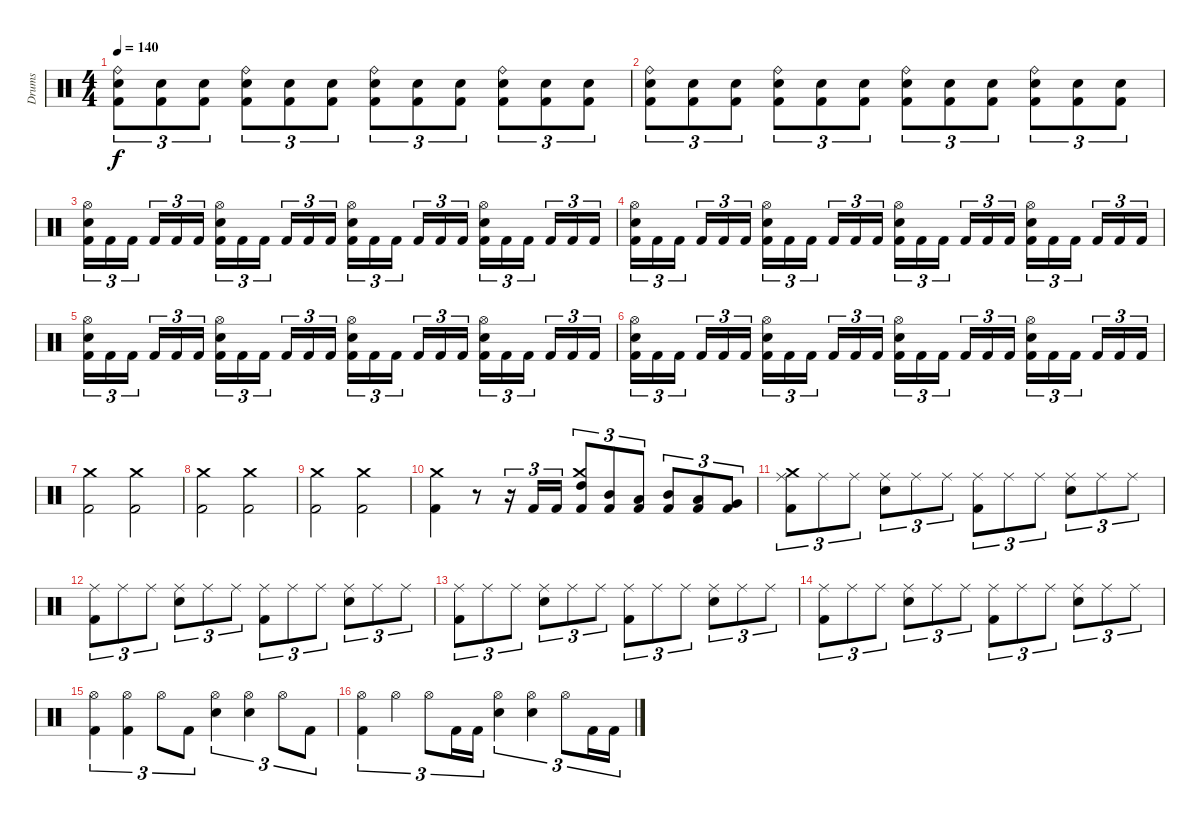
\track ("Drums" "Drums") {instrument percussion}
\staff {score}
\articulation defaults
\ts (4 4)
\tempo 140
\clef neutral
\ks c
("Kick (hit) 2" "Snare (hit) 2" "Ride (bell)").8{tu (3 2) dy f} ("Kick (hit) 2" "Snare (hit) 2").8{tu (3 2)} ("Kick (hit) 2" "Snare (hit) 2").8{tu (3 2)} ("Kick (hit) 2" "Snare (hit) 2" "Ride (bell)").8{tu (3 2)} ("Kick (hit) 2" "Snare (hit) 2").8{tu (3 2)} ("Kick (hit) 2" "Snare (hit) 2").8{tu (3 2)} ("Kick (hit) 2" "Snare (hit) 2" "Ride (bell)").8{tu (3 2)} ("Kick (hit) 2" "Snare (hit) 2").8{tu (3 2)} ("Kick (hit) 2" "Snare (hit) 2").8{tu (3 2)} ("Kick (hit) 2" "Snare (hit) 2" "Ride (bell)").8{tu (3 2)} ("Kick (hit) 2" "Snare (hit) 2").8{tu (3 2)} ("Kick (hit) 2" "Snare (hit) 2").8{tu (3 2)} |
("Kick (hit) 2" "Snare (hit) 2" "Ride (bell)").8{tu (3 2)} ("Kick (hit) 2" "Snare (hit) 2").8{tu (3 2)} ("Kick (hit) 2" "Snare (hit) 2").8{tu (3 2)} ("Kick (hit) 2" "Snare (hit) 2" "Ride (bell)").8{tu (3 2)} ("Kick (hit) 2" "Snare (hit) 2").8{tu (3 2)} ("Kick (hit) 2" "Snare (hit) 2").8{tu (3 2)} ("Kick (hit) 2" "Snare (hit) 2" "Ride (bell)").8{tu (3 2)} ("Kick (hit) 2" "Snare (hit) 2").8{tu (3 2)} ("Kick (hit) 2" "Snare (hit) 2").8{tu (3 2)} ("Kick (hit) 2" "Snare (hit) 2" "Ride (bell)").8{tu (3 2)} ("Kick (hit) 2" "Snare (hit) 2").8{tu (3 2)} ("Kick (hit) 2" "Snare (hit) 2").8{tu (3 2)} |
("Kick (hit) 2" "Snare (hit) 2" "Hi-Hat (open)").16{tu (3 2)} "Kick (hit) 2".16{tu (3 2)} "Kick (hit) 2".16{tu (3 2)} "Kick (hit) 2".16{tu (3 2)} "Kick (hit) 2".16{tu (3 2)} "Kick (hit) 2".16{tu (3 2)} ("Kick (hit) 2" "Snare (hit) 2" "Hi-Hat (open)").16{tu (3 2)} "Kick (hit) 2".16{tu (3 2)} "Kick (hit) 2".16{tu (3 2)} "Kick (hit) 2".16{tu (3 2)} "Kick (hit) 2".16{tu (3 2)} "Kick (hit) 2".16{tu (3 2)} ("Kick (hit) 2" "Snare (hit) 2" "Hi-Hat (open)").16{tu (3 2)} "Kick (hit) 2".16{tu (3 2)} "Kick (hit) 2".16{tu (3 2)} "Kick (hit) 2".16{tu (3 2)} "Kick (hit) 2".16{tu (3 2)} "Kick (hit) 2".16{tu (3 2)} ("Kick (hit) 2" "Snare (hit) 2" "Hi-Hat (open)").16{tu (3 2)} "Kick (hit) 2".16{tu (3 2)} "Kick (hit) 2".16{tu (3 2)} "Kick (hit) 2".16{tu (3 2)} "Kick (hit) 2".16{tu (3 2)} "Kick (hit) 2".16{tu (3 2)} |
("Kick (hit) 2" "Snare (hit) 2" "Hi-Hat (open)").16{tu (3 2)} "Kick (hit) 2".16{tu (3 2)} "Kick (hit) 2".16{tu (3 2)} "Kick (hit) 2".16{tu (3 2)} "Kick (hit) 2".16{tu (3 2)} "Kick (hit) 2".16{tu (3 2)} ("Kick (hit) 2" "Snare (hit) 2" "Hi-Hat (open)").16{tu (3 2)} "Kick (hit) 2".16{tu (3 2)} "Kick (hit) 2".16{tu (3 2)} "Kick (hit) 2".16{tu (3 2)} "Kick (hit) 2".16{tu (3 2)} "Kick (hit) 2".16{tu (3 2)} ("Kick (hit) 2" "Snare (hit) 2" "Hi-Hat (open)").16{tu (3 2)} "Kick (hit) 2".16{tu (3 2)} "Kick (hit) 2".16{tu (3 2)} "Kick (hit) 2".16{tu (3 2)} "Kick (hit) 2".16{tu (3 2)} "Kick (hit) 2".16{tu (3 2)} ("Kick (hit) 2" "Snare (hit) 2" "Hi-Hat (open)").16{tu (3 2)} "Kick (hit) 2".16{tu (3 2)} "Kick (hit) 2".16{tu (3 2)} "Kick (hit) 2".16{tu (3 2)} "Kick (hit) 2".16{tu (3 2)} "Kick (hit) 2".16{tu (3 2)} |
("Kick (hit) 2" "Snare (hit) 2" "Hi-Hat (open)").16{tu (3 2)} "Kick (hit) 2".16{tu (3 2)} "Kick (hit) 2".16{tu (3 2)} "Kick (hit) 2".16{tu (3 2)} "Kick (hit) 2".16{tu (3 2)} "Kick (hit) 2".16{tu (3 2)} ("Kick (hit) 2" "Snare (hit) 2" "Hi-Hat (open)").16{tu (3 2)} "Kick (hit) 2".16{tu (3 2)} "Kick (hit) 2".16{tu (3 2)} "Kick (hit) 2".16{tu (3 2)} "Kick (hit) 2".16{tu (3 2)} "Kick (hit) 2".16{tu (3 2)} ("Kick (hit) 2" "Snare (hit) 2" "Hi-Hat (open)").16{tu (3 2)} "Kick (hit) 2".16{tu (3 2)} "Kick (hit) 2".16{tu (3 2)} "Kick (hit) 2".16{tu (3 2)} "Kick (hit) 2".16{tu (3 2)} "Kick (hit) 2".16{tu (3 2)} ("Kick (hit) 2" "Snare (hit) 2" "Hi-Hat (open)").16{tu (3 2)} "Kick (hit) 2".16{tu (3 2)} "Kick (hit) 2".16{tu (3 2)} "Kick (hit) 2".16{tu (3 2)} "Kick (hit) 2".16{tu (3 2)} "Kick (hit) 2".16{tu (3 2)} |
("Kick (hit) 2" "Snare (hit) 2" "Hi-Hat (open)").16{tu (3 2)} "Kick (hit) 2".16{tu (3 2)} "Kick (hit) 2".16{tu (3 2)} "Kick (hit) 2".16{tu (3 2)} "Kick (hit) 2".16{tu (3 2)} "Kick (hit) 2".16{tu (3 2)} ("Kick (hit) 2" "Snare (hit) 2" "Hi-Hat (open)").16{tu (3 2)} "Kick (hit) 2".16{tu (3 2)} "Kick (hit) 2".16{tu (3 2)} "Kick (hit) 2".16{tu (3 2)} "Kick (hit) 2".16{tu (3 2)} "Kick (hit) 2".16{tu (3 2)} ("Kick (hit) 2" "Snare (hit) 2" "Hi-Hat (open)").16{tu (3 2)} "Kick (hit) 2".16{tu (3 2)} "Kick (hit) 2".16{tu (3 2)} "Kick (hit) 2".16{tu (3 2)} "Kick (hit) 2".16{tu (3 2)} "Kick (hit) 2".16{tu (3 2)} ("Kick (hit) 2" "Snare (hit) 2" "Hi-Hat (open)").16{tu (3 2)} "Kick (hit) 2".16{tu (3 2)} "Kick (hit) 2".16{tu (3 2)} "Kick (hit) 2".16{tu (3 2)} "Kick (hit) 2".16{tu (3 2)} "Kick (hit) 2".16{tu (3 2)} |
("Kick (hit) 2" "Crash medium (hit)").2 ("Kick (hit) 2" "Crash medium (hit)").2 |
("Kick (hit) 2" "Crash medium (hit)").2 ("Kick (hit) 2" "Crash medium (hit)").2 |
("Kick (hit) 2" "Crash medium (hit)").2 ("Kick (hit) 2" "Crash medium (hit)").2 |
("Kick (hit) 2" "Crash medium (hit)").4 r.8 r.16{tu (3 2)} "Kick (hit) 2".16{tu (3 2)} "Kick (hit) 2".16{tu (3 2)} ("Kick (hit) 2" "High Tom (hit)" "Crash medium (hit)").8{tu (3 2)} ("Kick (hit) 2" "Mid Tom (hit)").8{tu (3 2)} ("Kick (hit) 2" "Low Tom (hit)").8{tu (3 2)} ("Kick (hit) 2" "Mid Tom (hit)").8{tu (3 2)} ("Kick (hit) 2" "Low Tom (hit)").8{tu (3 2)} ("Kick (hit) 2" "Very Low Tom (hit)").8{tu (3 2)} |
("Kick (hit) 2" "Ride (middle)" "Crash medium (hit)").8{tu (3 2)} "Ride (middle)".8{tu (3 2)} "Ride (middle)".8{tu (3 2)} ("Snare (hit) 2" "Ride (middle)").8{tu (3 2)} "Ride (middle)".8{tu (3 2)} "Ride (middle)".8{tu (3 2)} ("Kick (hit) 2" "Ride (middle)").8{tu (3 2)} "Ride (middle)".8{tu (3 2)} "Ride (middle)".8{tu (3 2)} ("Snare (hit) 2" "Ride (middle)").8{tu (3 2)} "Ride (middle)".8{tu (3 2)} "Ride (middle)".8{tu (3 2)} |
("Kick (hit) 2" "Ride (middle)").8{tu (3 2)} "Ride (middle)".8{tu (3 2)} "Ride (middle)".8{tu (3 2)} ("Snare (hit) 2" "Ride (middle)").8{tu (3 2)} "Ride (middle)".8{tu (3 2)} "Ride (middle)".8{tu (3 2)} ("Kick (hit) 2" "Ride (middle)").8{tu (3 2)} "Ride (middle)".8{tu (3 2)} "Ride (middle)".8{tu (3 2)} ("Snare (hit) 2" "Ride (middle)").8{tu (3 2)} "Ride (middle)".8{tu (3 2)} "Ride (middle)".8{tu (3 2)} |
("Kick (hit) 2" "Ride (middle)").8{tu (3 2)} "Ride (middle)".8{tu (3 2)} "Ride (middle)".8{tu (3 2)} ("Snare (hit) 2" "Ride (middle)").8{tu (3 2)} "Ride (middle)".8{tu (3 2)} "Ride (middle)".8{tu (3 2)} ("Kick (hit) 2" "Ride (middle)").8{tu (3 2)} "Ride (middle)".8{tu (3 2)} "Ride (middle)".8{tu (3 2)} ("Snare (hit) 2" "Ride (middle)").8{tu (3 2)} "Ride (middle)".8{tu (3 2)} "Ride (middle)".8{tu (3 2)} |
("Kick (hit) 2" "Ride (middle)").8{tu (3 2)} "Ride (middle)".8{tu (3 2)} "Ride (middle)".8{tu (3 2)} ("Snare (hit) 2" "Ride (middle)").8{tu (3 2)} "Ride (middle)".8{tu (3 2)} "Ride (middle)".8{tu (3 2)} ("Kick (hit) 2" "Ride (middle)").8{tu (3 2)} "Ride (middle)".8{tu (3 2)} "Ride (middle)".8{tu (3 2)} ("Snare (hit) 2" "Ride (middle)").8{tu (3 2)} "Ride (middle)".8{tu (3 2)} "Ride (middle)".8{tu (3 2)} |
("Kick (hit) 2" "Hi-Hat (open)").4{tu (3 2)} ("Kick (hit) 2" "Hi-Hat (open)").4{tu (3 2)} "Hi-Hat (open)".8{tu (3 2)} "Kick (hit) 2".8{tu (3 2)} ("Snare (hit) 2" "Hi-Hat (open)").4{tu (3 2)} ("Snare (hit) 2" "Hi-Hat (open)").4{tu (3 2)} "Hi-Hat (open)".8{tu (3 2)} "Kick (hit) 2".8{tu (3 2)} |
("Kick (hit) 2" "Hi-Hat (open)").4{tu (3 2)} "Hi-Hat (open)".4{tu (3 2)} "Hi-Hat (open)".8{tu (3 2)} "Kick (hit) 2".16{tu (3 2)} "Kick (hit) 2".16{tu (3 2)} ("Snare (hit) 2" "Hi-Hat (open)").4{tu (3 2)} ("Snare (hit) 2" "Hi-Hat (open)").4{tu (3 2)} "Hi-Hat (open)".8{tu (3 2)} "Kick (hit) 2".16{tu (3 2)} "Kick (hit) 2".16{tu (3 2)}
